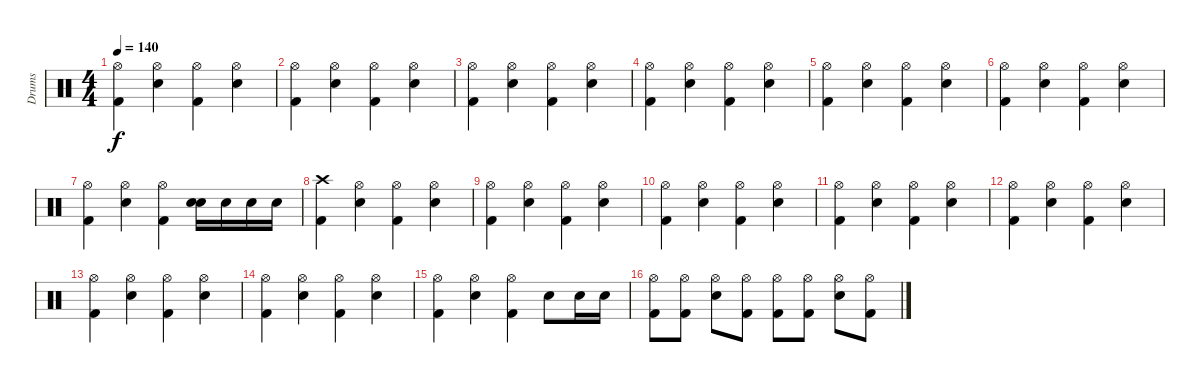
\track ("Drums" "Drums") {instrument percussion}
\staff {score}
\articulation defaults
\ts (4 4)
\tempo 140
\clef neutral
\ks c
("Hi-Hat (open)" "Kick (hit) 2").4{dy f} ("Hi-Hat (open)" "Snare (hit) 2").4 ("Hi-Hat (open)" "Kick (hit) 2").4 ("Snare (hit) 2" "Hi-Hat (open)").4 |
("Kick (hit) 2" "Hi-Hat (open)").4 ("Snare (hit) 2" "Hi-Hat (open)").4 ("Kick (hit) 2" "Hi-Hat (open)").4 ("Hi-Hat (open)" "Snare (hit) 2").4 |
("Kick (hit) 2" "Hi-Hat (open)").4 ("Snare (hit) 2" "Hi-Hat (open)").4 ("Kick (hit) 2" "Hi-Hat (open)").4 ("Hi-Hat (open)" "Snare (hit) 2").4 |
("Kick (hit) 2" "Hi-Hat (open)").4 ("Snare (hit) 2" "Hi-Hat (open)").4 ("Kick (hit) 2" "Hi-Hat (open)").4 ("Hi-Hat (open)" "Snare (hit) 2").4 |
("Kick (hit) 2" "Hi-Hat (open)").4 ("Snare (hit) 2" "Hi-Hat (open)").4 ("Kick (hit) 2" "Hi-Hat (open)").4 ("Hi-Hat (open)" "Snare (hit) 2").4 |
("Kick (hit) 2" "Hi-Hat (open)").4 ("Snare (hit) 2" "Hi-Hat (open)").4 ("Kick (hit) 2" "Hi-Hat (open)").4 ("Hi-Hat (open)" "Snare (hit) 2").4 |
("Hi-Hat (open)" "Kick (hit) 2").4 ("Snare (hit) 2" "Hi-Hat (open)").4 ("Kick (hit) 2" "Hi-Hat (open)").4 ("Snare (hit) 2" "Snare (hit) 2").16 "Snare (hit) 2".16 "Snare (hit) 2".16 "Snare (hit) 2".16 |
("Crash high (hit)" "Kick (hit) 2").4 ("Hi-Hat (open)" "Snare (hit) 2").4 ("Kick (hit) 2" "Hi-Hat (open)").4 ("Snare (hit) 2" "Hi-Hat (open)").4 |
("Kick (hit) 2" "Hi-Hat (open)").4 ("Snare (hit) 2" "Hi-Hat (open)").4 ("Hi-Hat (open)" "Kick (hit) 2").4 ("Snare (hit) 2" "Hi-Hat (open)").4 |
("Kick (hit) 2" "Hi-Hat (open)").4 ("Snare (hit) 2" "Hi-Hat (open)").4 ("Kick (hit) 2" "Hi-Hat (open)").4 ("Hi-Hat (open)" "Snare (hit) 2").4 |
("Kick (hit) 2" "Hi-Hat (open)").4 ("Snare (hit) 2" "Hi-Hat (open)").4 ("Kick (hit) 2" "Hi-Hat (open)").4 ("Hi-Hat (open)" "Snare (hit) 2").4 |
("Hi-Hat (open)" "Kick (hit) 2").4 ("Hi-Hat (open)" "Snare (hit) 2").4 ("Kick (hit) 2" "Hi-Hat (open)").4 ("Hi-Hat (open)" "Snare (hit) 2").4 |
("Kick (hit) 2" "Hi-Hat (open)").4 ("Snare (hit) 2" "Hi-Hat (open)").4 ("Hi-Hat (open)" "Kick (hit) 2").4 ("Hi-Hat (open)" "Snare (hit) 2").4 |
("Hi-Hat (open)" "Kick (hit) 2").4 ("Hi-Hat (open)" "Snare (hit) 2").4 ("Kick (hit) 2" "Hi-Hat (open)").4 ("Hi-Hat (open)" "Snare (hit) 2").4 |
("Hi-Hat (open)" "Kick (hit) 2").4 ("Hi-Hat (open)" "Snare (hit) 2").4 ("Hi-Hat (open)" "Kick (hit) 2").4 "Snare (hit) 2".8 "Snare (hit) 2".16 "Snare (hit) 2".16 |
("Kick (hit) 2" "Hi-Hat (open)").8 ("Kick (hit) 2" "Hi-Hat (open)").8 ("Snare (hit) 2" "Hi-Hat (open)").8 ("Kick (hit) 2" "Hi-Hat (open)").8 ("Kick (hit) 2" "Hi-Hat (open)").8 ("Kick (hit) 2" "Hi-Hat (open)").8 ("Hi-Hat (open)" "Snare (hit) 2").8 ("Hi-Hat (open)" "Kick (hit) 2").8
